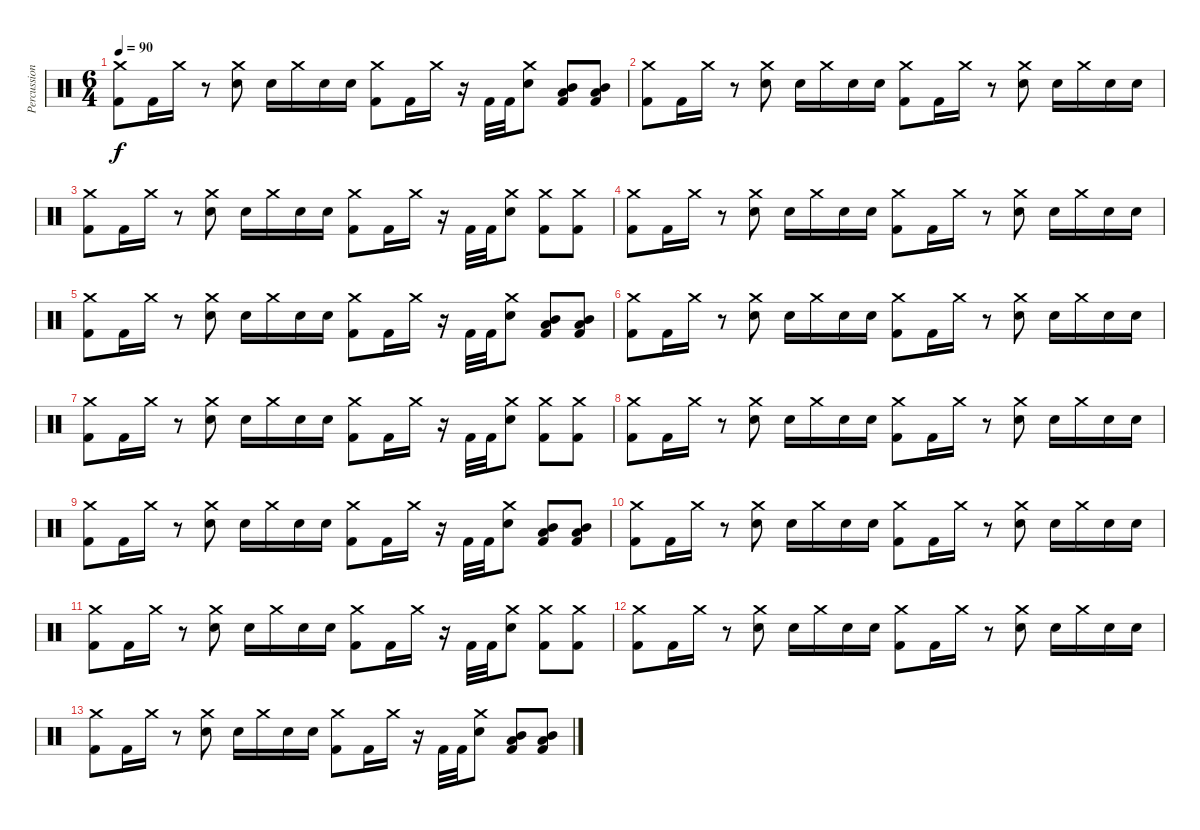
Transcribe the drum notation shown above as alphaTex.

\track ("Percussion" "Percussion") {instrument percussion}
\staff {score}
\articulation defaults
\ts (6 4)
\tempo 90
\clef neutral
\ks c
("Crash medium (hit)" "Kick (hit) 2").8{dy f} "Kick (hit) 2".16 "Crash medium (hit)".16 r.8 ("Crash medium (hit)" "Snare (hit) 2").8 "Snare (hit) 2".16 "Crash medium (hit)".16 "Snare (hit) 2".16 "Snare (hit) 2".16 ("Crash medium (hit)" "Kick (hit) 2").8 "Kick (hit) 2".16 "Crash medium (hit)".16 r.16 "Kick (hit) 2".32 "Kick (hit) 2".32 ("Crash medium (hit)" "Snare (hit) 2").8 ("Mid Tom (hit)" "Low Tom (hit)" "Kick (hit) 2").8 ("Mid Tom (hit)" "Low Tom (hit)" "Kick (hit) 2").8 |
("Crash medium (hit)" "Kick (hit) 2").8 "Kick (hit) 2".16 "Crash medium (hit)".16 r.8 ("Crash medium (hit)" "Snare (hit) 2").8 "Snare (hit) 2".16 "Crash medium (hit)".16 "Snare (hit) 2".16 "Snare (hit) 2".16 ("Crash medium (hit)" "Kick (hit) 2").8 "Kick (hit) 2".16 "Crash medium (hit)".16 r.8 ("Crash medium (hit)" "Snare (hit) 2").8 "Snare (hit) 2".16 "Crash medium (hit)".16 "Snare (hit) 2".16 "Snare (hit) 2".16 |
("Crash medium (hit)" "Kick (hit) 2").8 "Kick (hit) 2".16 "Crash medium (hit)".16 r.8 ("Crash medium (hit)" "Snare (hit) 2").8 "Snare (hit) 2".16 "Crash medium (hit)".16 "Snare (hit) 2".16 "Snare (hit) 2".16 ("Crash medium (hit)" "Kick (hit) 2").8 "Kick (hit) 2".16 "Crash medium (hit)".16 r.16 "Kick (hit) 2".32 "Kick (hit) 2".32 ("Crash medium (hit)" "Snare (hit) 2").8 ("Crash medium (hit)" "Kick (hit) 2").8 ("Crash medium (hit)" "Kick (hit) 2").8 |
("Crash medium (hit)" "Kick (hit) 2").8 "Kick (hit) 2".16 "Crash medium (hit)".16 r.8 ("Crash medium (hit)" "Snare (hit) 2").8 "Snare (hit) 2".16 "Crash medium (hit)".16 "Snare (hit) 2".16 "Snare (hit) 2".16 ("Crash medium (hit)" "Kick (hit) 2").8 "Kick (hit) 2".16 "Crash medium (hit)".16 r.8 ("Crash medium (hit)" "Snare (hit) 2").8 "Snare (hit) 2".16 "Crash medium (hit)".16 "Snare (hit) 2".16 "Snare (hit) 2".16 |
("Crash medium (hit)" "Kick (hit) 2").8 "Kick (hit) 2".16 "Crash medium (hit)".16 r.8 ("Crash medium (hit)" "Snare (hit) 2").8 "Snare (hit) 2".16 "Crash medium (hit)".16 "Snare (hit) 2".16 "Snare (hit) 2".16 ("Crash medium (hit)" "Kick (hit) 2").8 "Kick (hit) 2".16 "Crash medium (hit)".16 r.16 "Kick (hit) 2".32 "Kick (hit) 2".32 ("Crash medium (hit)" "Snare (hit) 2").8 ("Mid Tom (hit)" "Low Tom (hit)" "Kick (hit) 2").8 ("Mid Tom (hit)" "Low Tom (hit)" "Kick (hit) 2").8 |
("Crash medium (hit)" "Kick (hit) 2").8 "Kick (hit) 2".16 "Crash medium (hit)".16 r.8 ("Crash medium (hit)" "Snare (hit) 2").8 "Snare (hit) 2".16 "Crash medium (hit)".16 "Snare (hit) 2".16 "Snare (hit) 2".16 ("Crash medium (hit)" "Kick (hit) 2").8 "Kick (hit) 2".16 "Crash medium (hit)".16 r.8 ("Crash medium (hit)" "Snare (hit) 2").8 "Snare (hit) 2".16 "Crash medium (hit)".16 "Snare (hit) 2".16 "Snare (hit) 2".16 |
("Crash medium (hit)" "Kick (hit) 2").8 "Kick (hit) 2".16 "Crash medium (hit)".16 r.8 ("Crash medium (hit)" "Snare (hit) 2").8 "Snare (hit) 2".16 "Crash medium (hit)".16 "Snare (hit) 2".16 "Snare (hit) 2".16 ("Crash medium (hit)" "Kick (hit) 2").8 "Kick (hit) 2".16 "Crash medium (hit)".16 r.16 "Kick (hit) 2".32 "Kick (hit) 2".32 ("Crash medium (hit)" "Snare (hit) 2").8 ("Crash medium (hit)" "Kick (hit) 2").8 ("Crash medium (hit)" "Kick (hit) 2").8 |
("Crash medium (hit)" "Kick (hit) 2").8 "Kick (hit) 2".16 "Crash medium (hit)".16 r.8 ("Crash medium (hit)" "Snare (hit) 2").8 "Snare (hit) 2".16 "Crash medium (hit)".16 "Snare (hit) 2".16 "Snare (hit) 2".16 ("Crash medium (hit)" "Kick (hit) 2").8 "Kick (hit) 2".16 "Crash medium (hit)".16 r.8 ("Crash medium (hit)" "Snare (hit) 2").8 "Snare (hit) 2".16 "Crash medium (hit)".16 "Snare (hit) 2".16 "Snare (hit) 2".16 |
("Crash medium (hit)" "Kick (hit) 2").8 "Kick (hit) 2".16 "Crash medium (hit)".16 r.8 ("Crash medium (hit)" "Snare (hit) 2").8 "Snare (hit) 2".16 "Crash medium (hit)".16 "Snare (hit) 2".16 "Snare (hit) 2".16 ("Crash medium (hit)" "Kick (hit) 2").8 "Kick (hit) 2".16 "Crash medium (hit)".16 r.16 "Kick (hit) 2".32 "Kick (hit) 2".32 ("Crash medium (hit)" "Snare (hit) 2").8 ("Mid Tom (hit)" "Low Tom (hit)" "Kick (hit) 2").8 ("Mid Tom (hit)" "Low Tom (hit)" "Kick (hit) 2").8 |
("Crash medium (hit)" "Kick (hit) 2").8 "Kick (hit) 2".16 "Crash medium (hit)".16 r.8 ("Crash medium (hit)" "Snare (hit) 2").8 "Snare (hit) 2".16 "Crash medium (hit)".16 "Snare (hit) 2".16 "Snare (hit) 2".16 ("Crash medium (hit)" "Kick (hit) 2").8 "Kick (hit) 2".16 "Crash medium (hit)".16 r.8 ("Crash medium (hit)" "Snare (hit) 2").8 "Snare (hit) 2".16 "Crash medium (hit)".16 "Snare (hit) 2".16 "Snare (hit) 2".16 |
("Crash medium (hit)" "Kick (hit) 2").8 "Kick (hit) 2".16 "Crash medium (hit)".16 r.8 ("Crash medium (hit)" "Snare (hit) 2").8 "Snare (hit) 2".16 "Crash medium (hit)".16 "Snare (hit) 2".16 "Snare (hit) 2".16 ("Crash medium (hit)" "Kick (hit) 2").8 "Kick (hit) 2".16 "Crash medium (hit)".16 r.16 "Kick (hit) 2".32 "Kick (hit) 2".32 ("Crash medium (hit)" "Snare (hit) 2").8 ("Crash medium (hit)" "Kick (hit) 2").8 ("Crash medium (hit)" "Kick (hit) 2").8 |
("Crash medium (hit)" "Kick (hit) 2").8 "Kick (hit) 2".16 "Crash medium (hit)".16 r.8 ("Crash medium (hit)" "Snare (hit) 2").8 "Snare (hit) 2".16 "Crash medium (hit)".16 "Snare (hit) 2".16 "Snare (hit) 2".16 ("Crash medium (hit)" "Kick (hit) 2").8 "Kick (hit) 2".16 "Crash medium (hit)".16 r.8 ("Crash medium (hit)" "Snare (hit) 2").8 "Snare (hit) 2".16 "Crash medium (hit)".16 "Snare (hit) 2".16 "Snare (hit) 2".16 |
("Crash medium (hit)" "Kick (hit) 2").8 "Kick (hit) 2".16 "Crash medium (hit)".16 r.8 ("Crash medium (hit)" "Snare (hit) 2").8 "Snare (hit) 2".16 "Crash medium (hit)".16 "Snare (hit) 2".16 "Snare (hit) 2".16 ("Crash medium (hit)" "Kick (hit) 2").8 "Kick (hit) 2".16 "Crash medium (hit)".16 r.16 "Kick (hit) 2".32 "Kick (hit) 2".32 ("Crash medium (hit)" "Snare (hit) 2").8 ("Mid Tom (hit)" "Low Tom (hit)" "Kick (hit) 2").8 ("Mid Tom (hit)" "Low Tom (hit)" "Kick (hit) 2").8
